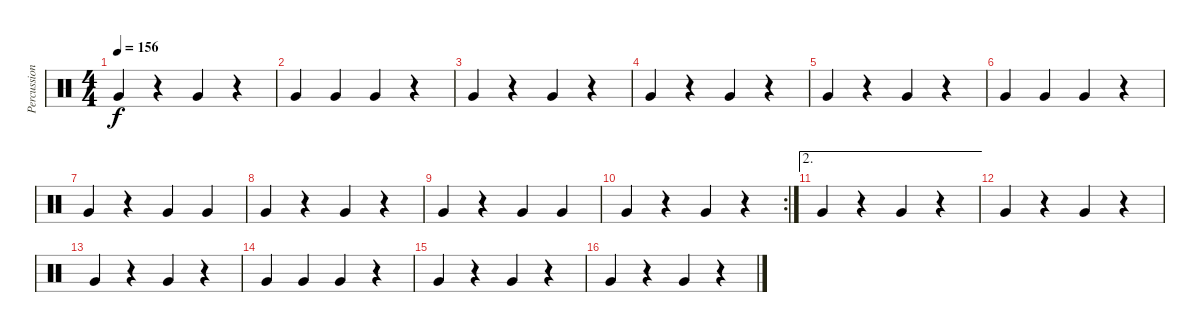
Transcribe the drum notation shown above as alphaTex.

\track ("Percussions" "Percussion") {instrument percussion}
\staff {score}
\articulation defaults
\ts (4 4)
\tempo 156
\clef neutral
\ks c "Very Low Tom (hit)".4{dy f}
r.4 "Very Low Tom (hit)".4 r.4 |
"Very Low Tom (hit)".4 "Very Low Tom (hit)".4 "Very Low Tom (hit)".4 r.4 |
"Very Low Tom (hit)".4 r.4 "Very Low Tom (hit)".4 r.4 |
"Very Low Tom (hit)".4 r.4 "Very Low Tom (hit)".4 r.4 |
"Very Low Tom (hit)".4 r.4 "Very Low Tom (hit)".4 r.4 |
"Very Low Tom (hit)".4 "Very Low Tom (hit)".4 "Very Low Tom (hit)".4 r.4 |
"Very Low Tom (hit)".4 r.4 "Very Low Tom (hit)".4 "Very Low Tom (hit)".4 |
"Very Low Tom (hit)".4 r.4 "Very Low Tom (hit)".4 r.4 |
"Very Low Tom (hit)".4 r.4 "Very Low Tom (hit)".4 "Very Low Tom (hit)".4 |
\rc 2 "Very Low Tom (hit)".4
r.4 "Very Low Tom (hit)".4 r.4 |
\ae 2 "Very Low Tom (hit)".4
r.4 "Very Low Tom (hit)".4 r.4 |
"Very Low Tom (hit)".4 r.4 "Very Low Tom (hit)".4 r.4 |
"Very Low Tom (hit)".4 r.4 "Very Low Tom (hit)".4 r.4 |
"Very Low Tom (hit)".4 "Very Low Tom (hit)".4 "Very Low Tom (hit)".4 r.4 |
"Very Low Tom (hit)".4 r.4 "Very Low Tom (hit)".4 r.4 |
"Very Low Tom (hit)".4 r.4 "Very Low Tom (hit)".4 r.4
